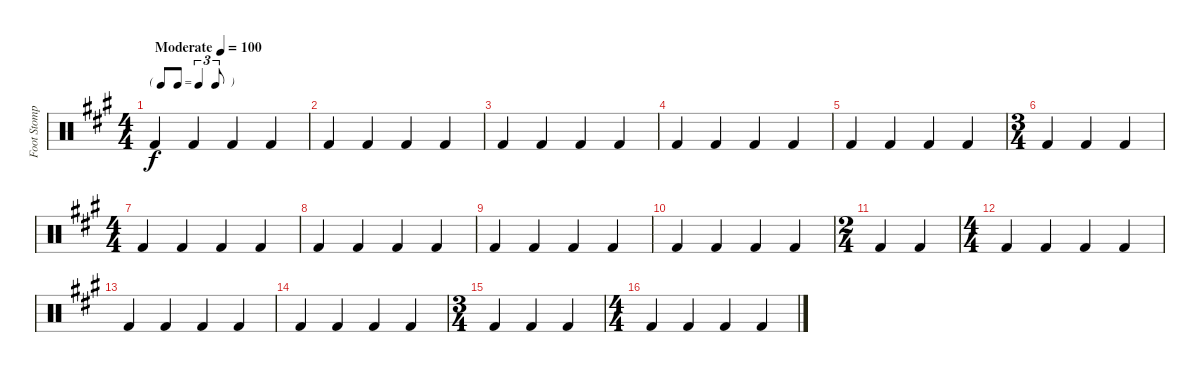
\track ("Foot Stomp" "Foot Stomp") {instrument percussion}
\staff {score}
\articulation defaults
\ts (4 4)
\tf triplet8th
\tempo (100 "Moderate")
\clef neutral
\ks a "Kick (hit) 2".4{dy f} "Kick (hit) 2".4 "Kick (hit) 2".4 "Kick (hit) 2".4
|
"Kick (hit) 2".4 "Kick (hit) 2".4 "Kick (hit) 2".4 "Kick (hit) 2".4 |
"Kick (hit) 2".4 "Kick (hit) 2".4 "Kick (hit) 2".4 "Kick (hit) 2".4 |
"Kick (hit) 2".4 "Kick (hit) 2".4 "Kick (hit) 2".4 "Kick (hit) 2".4 |
"Kick (hit) 2".4 "Kick (hit) 2".4 "Kick (hit) 2".4 "Kick (hit) 2".4 |
\ts (3 4)
"Kick (hit) 2".4 "Kick (hit) 2".4 "Kick (hit) 2".4 |
\ts (4 4)
"Kick (hit) 2".4 "Kick (hit) 2".4 "Kick (hit) 2".4 "Kick (hit) 2".4 |
"Kick (hit) 2".4 "Kick (hit) 2".4 "Kick (hit) 2".4 "Kick (hit) 2".4 |
"Kick (hit) 2".4 "Kick (hit) 2".4 "Kick (hit) 2".4 "Kick (hit) 2".4 |
"Kick (hit) 2".4 "Kick (hit) 2".4 "Kick (hit) 2".4 "Kick (hit) 2".4 |
\ts (2 4)
"Kick (hit) 2".4 "Kick (hit) 2".4 |
\ts (4 4)
"Kick (hit) 2".4 "Kick (hit) 2".4 "Kick (hit) 2".4 "Kick (hit) 2".4 |
"Kick (hit) 2".4 "Kick (hit) 2".4 "Kick (hit) 2".4 "Kick (hit) 2".4 |
"Kick (hit) 2".4 "Kick (hit) 2".4 "Kick (hit) 2".4 "Kick (hit) 2".4 |
\ts (3 4)
"Kick (hit) 2".4 "Kick (hit) 2".4 "Kick (hit) 2".4 |
\ts (4 4)
"Kick (hit) 2".4 "Kick (hit) 2".4 "Kick (hit) 2".4 "Kick (hit) 2".4
